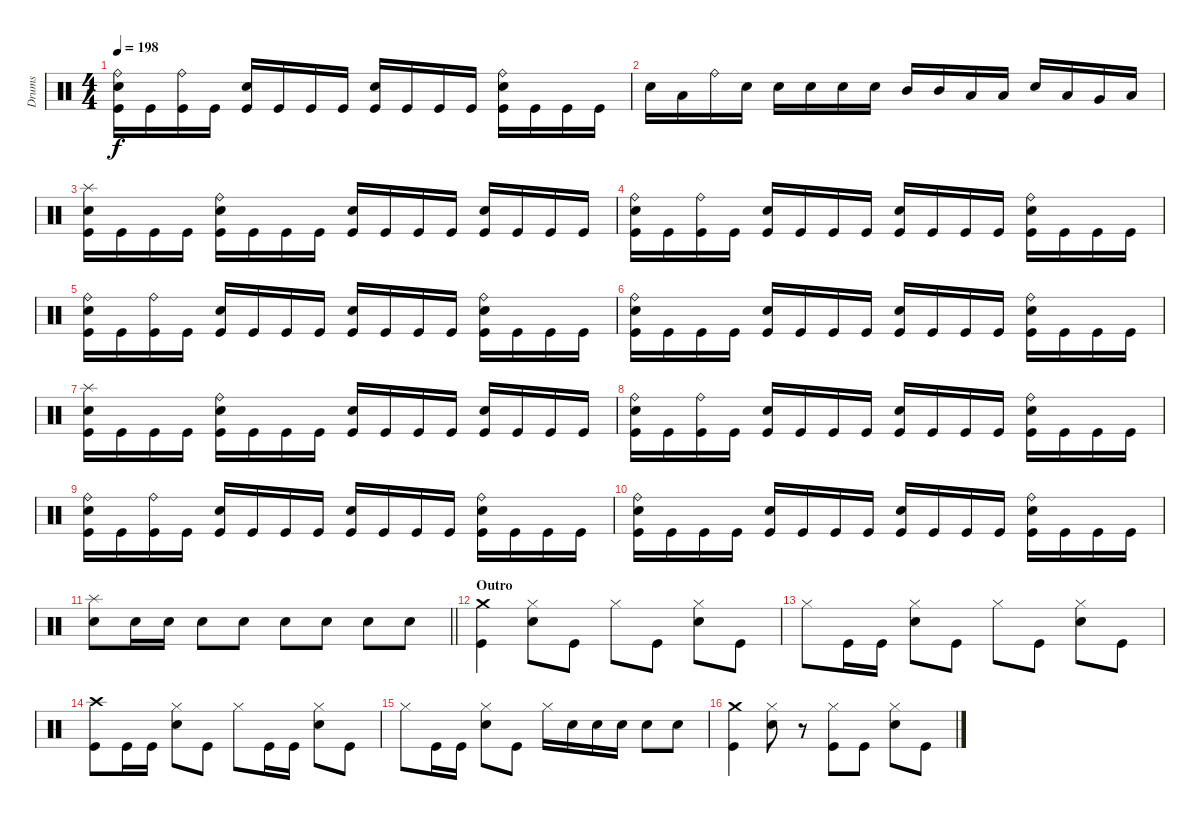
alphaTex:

\track ("Drums" "Drums") {instrument percussion}
\staff {score}
\articulation defaults
\ts (4 4)
\tempo 198
\clef neutral
\ks c
("Ride (bell)" "Electric Snare (hit)" "Kick (hit)").16{dy f} "Kick (hit)".16 ("Ride (bell)" "Kick (hit)").16 "Kick (hit)".16 ("Electric Snare (hit)" "Kick (hit)").16 "Kick (hit)".16 "Kick (hit)".16 "Kick (hit)".16 ("Electric Snare (hit)" "Kick (hit)").16 "Kick (hit)".16 "Kick (hit)".16 "Kick (hit)".16 ("Ride (bell)" "Electric Snare (hit)" "Kick (hit)").16 "Kick (hit)".16 "Kick (hit)".16 "Kick (hit)".16 |
"Electric Snare (hit)".16 "Low Tom (hit)".16 "Ride (bell)".16 "Electric Snare (hit)".16 "Electric Snare (hit)".16 "Electric Snare (hit)".16 "Electric Snare (hit)".16 "Electric Snare (hit)".16 "Mid Tom (hit)".16 "Mid Tom (hit)".16 "Low Tom (hit)".16 "Low Tom (hit)".16 "Electric Snare (hit)".16 "Low Tom (hit)".16 "Very Low Tom (hit)".16 "Low Floor Tom (hit)".16 |
("Splash (hit)" "Electric Snare (hit)" "Kick (hit)").16 "Kick (hit)".16 "Kick (hit)".16 "Kick (hit)".16 ("Ride (bell)" "Electric Snare (hit)" "Kick (hit)").16 "Kick (hit)".16 "Kick (hit)".16 "Kick (hit)".16 ("Electric Snare (hit)" "Kick (hit)").16 "Kick (hit)".16 "Kick (hit)".16 "Kick (hit)".16 ("Electric Snare (hit)" "Kick (hit)").16 "Kick (hit)".16 "Kick (hit)".16 "Kick (hit)".16 |
("Ride (bell)" "Electric Snare (hit)" "Kick (hit)").16 "Kick (hit)".16 ("Ride (bell)" "Kick (hit)").16 "Kick (hit)".16 ("Electric Snare (hit)" "Kick (hit)").16 "Kick (hit)".16 "Kick (hit)".16 "Kick (hit)".16 ("Electric Snare (hit)" "Kick (hit)").16 "Kick (hit)".16 "Kick (hit)".16 "Kick (hit)".16 ("Ride (bell)" "Electric Snare (hit)" "Kick (hit)").16 "Kick (hit)".16 "Kick (hit)".16 "Kick (hit)".16 |
("Ride (bell)" "Electric Snare (hit)" "Kick (hit)").16 "Kick (hit)".16 ("Ride (bell)" "Kick (hit)").16 "Kick (hit)".16 ("Electric Snare (hit)" "Kick (hit)").16 "Kick (hit)".16 "Kick (hit)".16 "Kick (hit)".16 ("Electric Snare (hit)" "Kick (hit)").16 "Kick (hit)".16 "Kick (hit)".16 "Kick (hit)".16 ("Ride (bell)" "Electric Snare (hit)" "Kick (hit)").16 "Kick (hit)".16 "Kick (hit)".16 "Kick (hit)".16 |
("Ride (bell)" "Electric Snare (hit)" "Kick (hit)").16 "Kick (hit)".16 "Kick (hit)".16 "Kick (hit)".16 ("Electric Snare (hit)" "Kick (hit)").16 "Kick (hit)".16 "Kick (hit)".16 "Kick (hit)".16 ("Electric Snare (hit)" "Kick (hit)").16 "Kick (hit)".16 "Kick (hit)".16 "Kick (hit)".16 ("Ride (bell)" "Electric Snare (hit)" "Kick (hit)").16 "Kick (hit)".16 "Kick (hit)".16 "Kick (hit)".16 |
("Splash (hit)" "Electric Snare (hit)" "Kick (hit)").16 "Kick (hit)".16 "Kick (hit)".16 "Kick (hit)".16 ("Ride (bell)" "Electric Snare (hit)" "Kick (hit)").16 "Kick (hit)".16 "Kick (hit)".16 "Kick (hit)".16 ("Electric Snare (hit)" "Kick (hit)").16 "Kick (hit)".16 "Kick (hit)".16 "Kick (hit)".16 ("Electric Snare (hit)" "Kick (hit)").16 "Kick (hit)".16 "Kick (hit)".16 "Kick (hit)".16 |
("Ride (bell)" "Electric Snare (hit)" "Kick (hit)").16 "Kick (hit)".16 ("Ride (bell)" "Kick (hit)").16 "Kick (hit)".16 ("Electric Snare (hit)" "Kick (hit)").16 "Kick (hit)".16 "Kick (hit)".16 "Kick (hit)".16 ("Electric Snare (hit)" "Kick (hit)").16 "Kick (hit)".16 "Kick (hit)".16 "Kick (hit)".16 ("Ride (bell)" "Electric Snare (hit)" "Kick (hit)").16 "Kick (hit)".16 "Kick (hit)".16 "Kick (hit)".16 |
("Ride (bell)" "Electric Snare (hit)" "Kick (hit)").16 "Kick (hit)".16 ("Ride (bell)" "Kick (hit)").16 "Kick (hit)".16 ("Electric Snare (hit)" "Kick (hit)").16 "Kick (hit)".16 "Kick (hit)".16 "Kick (hit)".16 ("Electric Snare (hit)" "Kick (hit)").16 "Kick (hit)".16 "Kick (hit)".16 "Kick (hit)".16 ("Ride (bell)" "Electric Snare (hit)" "Kick (hit)").16 "Kick (hit)".16 "Kick (hit)".16 "Kick (hit)".16 |
("Ride (bell)" "Electric Snare (hit)" "Kick (hit)").16 "Kick (hit)".16 "Kick (hit)".16 "Kick (hit)".16 ("Electric Snare (hit)" "Kick (hit)").16 "Kick (hit)".16 "Kick (hit)".16 "Kick (hit)".16 ("Electric Snare (hit)" "Kick (hit)").16 "Kick (hit)".16 "Kick (hit)".16 "Kick (hit)".16 ("Ride (bell)" "Electric Snare (hit)" "Kick (hit)").16 "Kick (hit)".16 "Kick (hit)".16 "Kick (hit)".16 |
\barLineRight lightlight
("Splash (hit)" "Electric Snare (hit)").8 "Electric Snare (hit)".16 "Electric Snare (hit)".16 "Electric Snare (hit)".8 "Electric Snare (hit)".8 "Electric Snare (hit)".8 "Electric Snare (hit)".8 "Electric Snare (hit)".8 "Electric Snare (hit)".8 |
\section ("" "Outro")
("Crash medium (hit)" "Kick (hit)").4 ("Hi-Hat (closed)" "Electric Snare (hit)").8 "Kick (hit)".8 "Hi-Hat (closed)".8 "Kick (hit)".8 ("Hi-Hat (closed)" "Electric Snare (hit)").8 "Kick (hit)".8 |
"Hi-Hat (closed)".8 "Kick (hit)".16 "Kick (hit)".16 ("Hi-Hat (closed)" "Electric Snare (hit)").8 "Kick (hit)".8 "Hi-Hat (closed)".8 "Kick (hit)".8 ("Hi-Hat (closed)" "Electric Snare (hit)").8 "Kick (hit)".8 |
("Crash high (hit)" "Kick (hit)").8 "Kick (hit)".16 "Kick (hit)".16 ("Hi-Hat (closed)" "Electric Snare (hit)").8 "Kick (hit)".8 "Hi-Hat (closed)".8 "Kick (hit)".16 "Kick (hit)".16 ("Hi-Hat (closed)" "Electric Snare (hit)").8 "Kick (hit)".8 |
"Hi-Hat (closed)".8 "Kick (hit)".16 "Kick (hit)".16 ("Hi-Hat (closed)" "Electric Snare (hit)").8 "Kick (hit)".8 "Hi-Hat (closed)".16 "Electric Snare (hit)".16 "Electric Snare (hit)".16 "Electric Snare (hit)".16 "Electric Snare (hit)".8 "Electric Snare (hit)".8 |
("Crash medium (hit)" "Kick (hit)").4 ("Hi-Hat (closed)" "Electric Snare (hit)").8 r.8 ("Hi-Hat (closed)" "Kick (hit)").8 "Kick (hit)".8 ("Hi-Hat (closed)" "Electric Snare (hit)").8 "Kick (hit)".8
